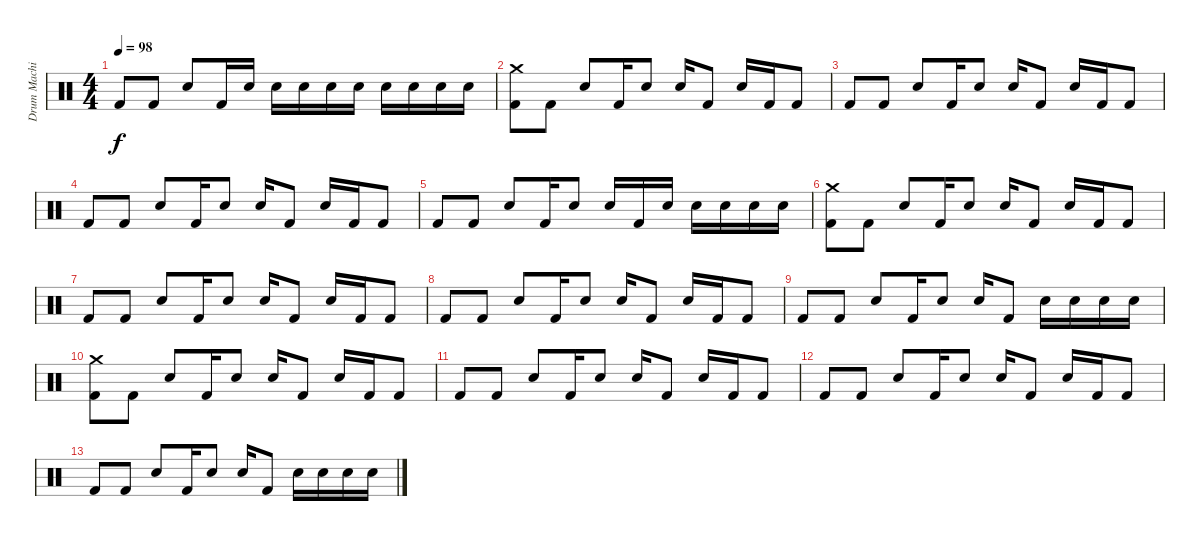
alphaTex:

\track ("Drum Machine" "Drum Machi") {instrument percussion}
\staff {score}
\articulation defaults
\ts (4 4)
\tempo 98
\clef neutral
\ks c "Kick (hit) 2".8{dy f} "Kick (hit) 2".8 "Electric Snare (hit)".8 "Kick (hit) 2".16 "Electric Snare (hit)".16 "Electric Snare (hit)".16 "Electric Snare (hit)".16 "Electric Snare (hit)".16 "Electric Snare (hit)".16 "Electric Snare (hit)".16 "Electric Snare (hit)".16 "Electric Snare (hit)".16 "Electric Snare (hit)".16
|
("Crash medium (hit)" "Kick (hit) 2").8 "Kick (hit) 2".8 "Electric Snare (hit)".8 "Kick (hit) 2".16 "Electric Snare (hit)".8 "Electric Snare (hit)".16 "Kick (hit) 2".8 "Electric Snare (hit)".16 "Kick (hit) 2".16 "Kick (hit) 2".8 |
"Kick (hit) 2".8 "Kick (hit) 2".8 "Electric Snare (hit)".8 "Kick (hit) 2".16 "Electric Snare (hit)".8 "Electric Snare (hit)".16 "Kick (hit) 2".8 "Electric Snare (hit)".16 "Kick (hit) 2".16 "Kick (hit) 2".8 |
"Kick (hit) 2".8 "Kick (hit) 2".8 "Electric Snare (hit)".8 "Kick (hit) 2".16 "Electric Snare (hit)".8 "Electric Snare (hit)".16 "Kick (hit) 2".8 "Electric Snare (hit)".16 "Kick (hit) 2".16 "Kick (hit) 2".8 |
"Kick (hit) 2".8 "Kick (hit) 2".8 "Electric Snare (hit)".8 "Kick (hit) 2".16 "Electric Snare (hit)".8 "Electric Snare (hit)".16 "Kick (hit) 2".16 "Electric Snare (hit)".16 "Electric Snare (hit)".16 "Electric Snare (hit)".16 "Electric Snare (hit)".16 "Electric Snare (hit)".16 |
("Crash medium (hit)" "Kick (hit) 2").8{volume 0} "Kick (hit) 2".8 "Electric Snare (hit)".8 "Kick (hit) 2".16 "Electric Snare (hit)".8 "Electric Snare (hit)".16 "Kick (hit) 2".8 "Electric Snare (hit)".16 "Kick (hit) 2".16 "Kick (hit) 2".8 |
"Kick (hit) 2".8 "Kick (hit) 2".8 "Electric Snare (hit)".8 "Kick (hit) 2".16 "Electric Snare (hit)".8 "Electric Snare (hit)".16 "Kick (hit) 2".8 "Electric Snare (hit)".16 "Kick (hit) 2".16 "Kick (hit) 2".8 |
"Kick (hit) 2".8 "Kick (hit) 2".8 "Electric Snare (hit)".8 "Kick (hit) 2".16 "Electric Snare (hit)".8 "Electric Snare (hit)".16 "Kick (hit) 2".8 "Electric Snare (hit)".16 "Kick (hit) 2".16 "Kick (hit) 2".8 |
"Kick (hit) 2".8 "Kick (hit) 2".8 "Electric Snare (hit)".8 "Kick (hit) 2".16 "Electric Snare (hit)".8 "Electric Snare (hit)".16 "Kick (hit) 2".8 "Electric Snare (hit)".16 "Electric Snare (hit)".16 "Electric Snare (hit)".16 "Electric Snare (hit)".16 |
("Crash medium (hit)" "Kick (hit) 2").8 "Kick (hit) 2".8 "Electric Snare (hit)".8 "Kick (hit) 2".16 "Electric Snare (hit)".8 "Electric Snare (hit)".16 "Kick (hit) 2".8 "Electric Snare (hit)".16 "Kick (hit) 2".16 "Kick (hit) 2".8 |
"Kick (hit) 2".8 "Kick (hit) 2".8 "Electric Snare (hit)".8 "Kick (hit) 2".16 "Electric Snare (hit)".8 "Electric Snare (hit)".16 "Kick (hit) 2".8 "Electric Snare (hit)".16 "Kick (hit) 2".16 "Kick (hit) 2".8 |
"Kick (hit) 2".8 "Kick (hit) 2".8 "Electric Snare (hit)".8 "Kick (hit) 2".16 "Electric Snare (hit)".8 "Electric Snare (hit)".16 "Kick (hit) 2".8 "Electric Snare (hit)".16 "Kick (hit) 2".16 "Kick (hit) 2".8 |
"Kick (hit) 2".8 "Kick (hit) 2".8 "Electric Snare (hit)".8 "Kick (hit) 2".16 "Electric Snare (hit)".8 "Electric Snare (hit)".16 "Kick (hit) 2".8 "Electric Snare (hit)".16 "Electric Snare (hit)".16 "Electric Snare (hit)".16 "Electric Snare (hit)".16
